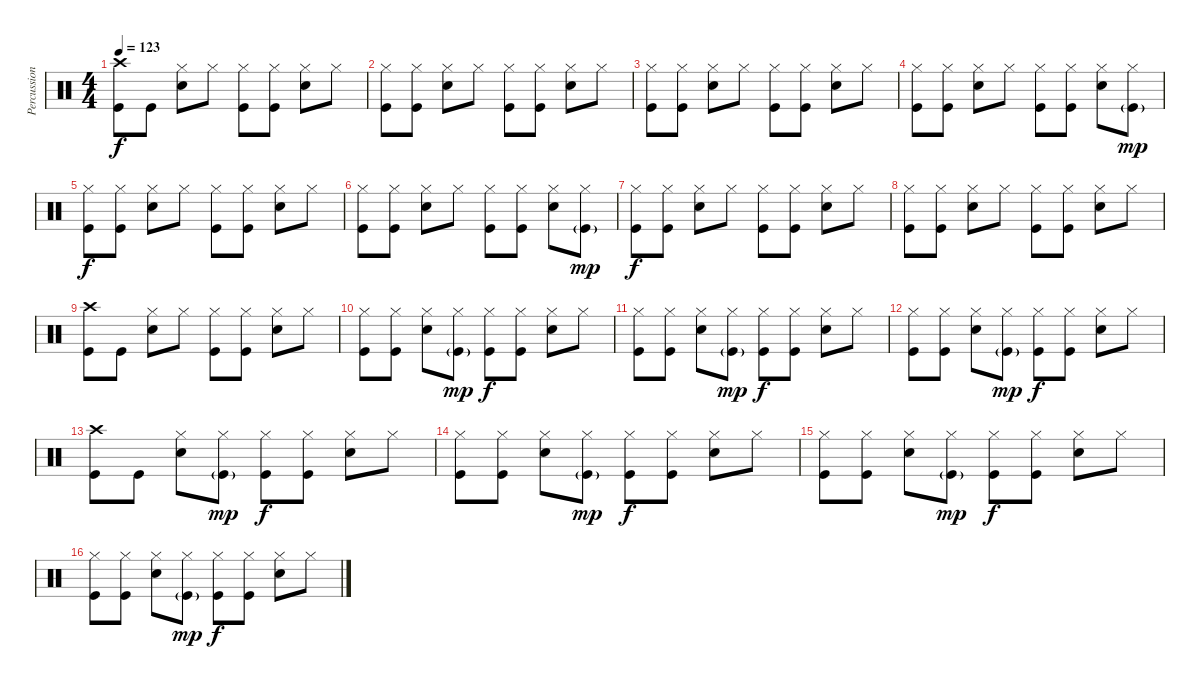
\track ("Percussion" "Percussion") {instrument percussion}
\staff {score}
\articulation defaults
\ts (4 4)
\tempo 123
\clef neutral
\ks c
("Crash high (hit)" "Kick (hit)").8{dy f} "Kick (hit)".8 ("Hi-Hat (closed)" "Snare (hit) 2").8 "Hi-Hat (closed)".8 ("Hi-Hat (closed)" "Kick (hit)").8 ("Hi-Hat (closed)" "Kick (hit)").8 ("Hi-Hat (closed)" "Snare (hit) 2").8 "Hi-Hat (closed)".8 |
("Hi-Hat (closed)" "Kick (hit)").8 ("Hi-Hat (closed)" "Kick (hit)").8 ("Hi-Hat (closed)" "Snare (hit) 2").8 "Hi-Hat (closed)".8 ("Hi-Hat (closed)" "Kick (hit)").8 ("Hi-Hat (closed)" "Kick (hit)").8 ("Hi-Hat (closed)" "Snare (hit) 2").8 "Hi-Hat (closed)".8 |
("Hi-Hat (closed)" "Kick (hit)").8 ("Hi-Hat (closed)" "Kick (hit)").8 ("Hi-Hat (closed)" "Snare (hit) 2").8 "Hi-Hat (closed)".8 ("Hi-Hat (closed)" "Kick (hit)").8 ("Hi-Hat (closed)" "Kick (hit)").8 ("Hi-Hat (closed)" "Snare (hit) 2").8 "Hi-Hat (closed)".8 |
("Hi-Hat (closed)" "Kick (hit)").8 ("Hi-Hat (closed)" "Kick (hit)").8 ("Hi-Hat (closed)" "Snare (hit) 2").8 "Hi-Hat (closed)".8 ("Hi-Hat (closed)" "Kick (hit)").8 ("Hi-Hat (closed)" "Kick (hit)").8 ("Hi-Hat (closed)" "Snare (hit) 2").8 ("Hi-Hat (closed)" "Kick (hit)"{g}).8{dy mp} |
("Hi-Hat (closed)" "Kick (hit)").8{dy f} ("Hi-Hat (closed)" "Kick (hit)").8 ("Hi-Hat (closed)" "Snare (hit) 2").8 "Hi-Hat (closed)".8 ("Hi-Hat (closed)" "Kick (hit)").8 ("Hi-Hat (closed)" "Kick (hit)").8 ("Hi-Hat (closed)" "Snare (hit) 2").8 "Hi-Hat (closed)".8 |
("Hi-Hat (closed)" "Kick (hit)").8 ("Hi-Hat (closed)" "Kick (hit)").8 ("Hi-Hat (closed)" "Snare (hit) 2").8 "Hi-Hat (closed)".8 ("Hi-Hat (closed)" "Kick (hit)").8 ("Hi-Hat (closed)" "Kick (hit)").8 ("Hi-Hat (closed)" "Snare (hit) 2").8 ("Hi-Hat (closed)" "Kick (hit)"{g}).8{dy mp} |
("Hi-Hat (closed)" "Kick (hit)").8{dy f} ("Hi-Hat (closed)" "Kick (hit)").8 ("Hi-Hat (closed)" "Snare (hit) 2").8 "Hi-Hat (closed)".8 ("Hi-Hat (closed)" "Kick (hit)").8 ("Hi-Hat (closed)" "Kick (hit)").8 ("Hi-Hat (closed)" "Snare (hit) 2").8 "Hi-Hat (closed)".8 |
("Hi-Hat (closed)" "Kick (hit)").8 ("Hi-Hat (closed)" "Kick (hit)").8 ("Hi-Hat (closed)" "Snare (hit) 2").8 "Hi-Hat (closed)".8 ("Hi-Hat (closed)" "Kick (hit)").8 ("Hi-Hat (closed)" "Kick (hit)").8 ("Hi-Hat (closed)" "Snare (hit) 2").8 "Hi-Hat (closed)".8 |
("Crash high (hit)" "Kick (hit)").8 "Kick (hit)".8 ("Hi-Hat (closed)" "Snare (hit) 2").8 "Hi-Hat (closed)".8 ("Hi-Hat (closed)" "Kick (hit)").8 ("Hi-Hat (closed)" "Kick (hit)").8 ("Hi-Hat (closed)" "Snare (hit) 2").8 "Hi-Hat (closed)".8 |
("Hi-Hat (closed)" "Kick (hit)").8 ("Hi-Hat (closed)" "Kick (hit)").8 ("Hi-Hat (closed)" "Snare (hit) 2").8 ("Hi-Hat (closed)" "Kick (hit)"{g}).8{dy mp} ("Hi-Hat (closed)" "Kick (hit)").8{dy f} ("Hi-Hat (closed)" "Kick (hit)").8 ("Hi-Hat (closed)" "Snare (hit) 2").8 "Hi-Hat (closed)".8 |
("Hi-Hat (closed)" "Kick (hit)").8 ("Hi-Hat (closed)" "Kick (hit)").8 ("Hi-Hat (closed)" "Snare (hit) 2").8 ("Hi-Hat (closed)" "Kick (hit)"{g}).8{dy mp} ("Hi-Hat (closed)" "Kick (hit)").8{dy f} ("Hi-Hat (closed)" "Kick (hit)").8 ("Hi-Hat (closed)" "Snare (hit) 2").8 "Hi-Hat (closed)".8 |
("Hi-Hat (closed)" "Kick (hit)").8 ("Hi-Hat (closed)" "Kick (hit)").8 ("Hi-Hat (closed)" "Snare (hit) 2").8 ("Hi-Hat (closed)" "Kick (hit)"{g}).8{dy mp} ("Hi-Hat (closed)" "Kick (hit)").8{dy f} ("Hi-Hat (closed)" "Kick (hit)").8 ("Hi-Hat (closed)" "Snare (hit) 2").8 "Hi-Hat (closed)".8 |
("Crash high (hit)" "Kick (hit)").8 "Kick (hit)".8 ("Hi-Hat (closed)" "Snare (hit) 2").8 ("Hi-Hat (closed)" "Kick (hit)"{g}).8{dy mp} ("Hi-Hat (closed)" "Kick (hit)").8{dy f} ("Hi-Hat (closed)" "Kick (hit)").8 ("Hi-Hat (closed)" "Snare (hit) 2").8 "Hi-Hat (closed)".8 |
("Hi-Hat (closed)" "Kick (hit)").8 ("Hi-Hat (closed)" "Kick (hit)").8 ("Hi-Hat (closed)" "Snare (hit) 2").8 ("Hi-Hat (closed)" "Kick (hit)"{g}).8{dy mp} ("Hi-Hat (closed)" "Kick (hit)").8{dy f} ("Hi-Hat (closed)" "Kick (hit)").8 ("Hi-Hat (closed)" "Snare (hit) 2").8 "Hi-Hat (closed)".8 |
("Hi-Hat (closed)" "Kick (hit)").8 ("Hi-Hat (closed)" "Kick (hit)").8 ("Hi-Hat (closed)" "Snare (hit) 2").8 ("Hi-Hat (closed)" "Kick (hit)"{g}).8{dy mp} ("Hi-Hat (closed)" "Kick (hit)").8{dy f} ("Hi-Hat (closed)" "Kick (hit)").8 ("Hi-Hat (closed)" "Snare (hit) 2").8 "Hi-Hat (closed)".8 |
("Hi-Hat (closed)" "Kick (hit)").8 ("Hi-Hat (closed)" "Kick (hit)").8 ("Hi-Hat (closed)" "Snare (hit) 2").8 ("Hi-Hat (closed)" "Kick (hit)"{g}).8{dy mp} ("Hi-Hat (closed)" "Kick (hit)").8{dy f} ("Hi-Hat (closed)" "Kick (hit)").8 ("Hi-Hat (closed)" "Snare (hit) 2").8 "Hi-Hat (closed)".8
